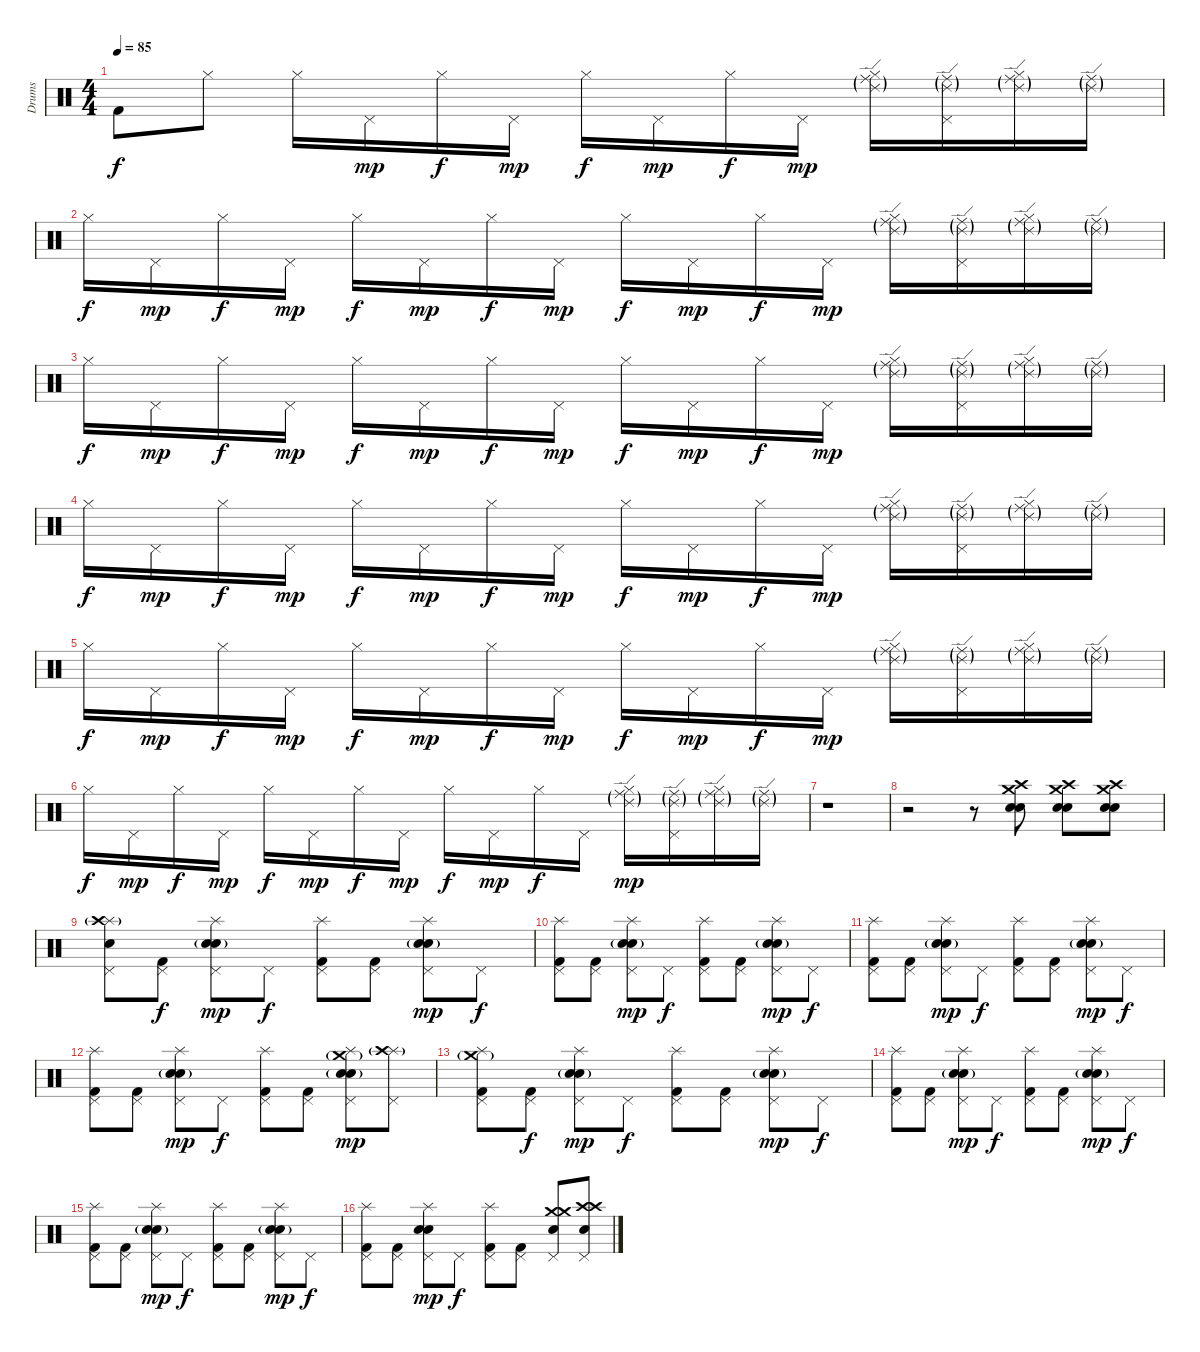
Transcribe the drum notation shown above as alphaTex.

\track ("Drums" "Drums") {instrument percussion}
\staff {score}
\articulation defaults
\ts (4 4)
\tempo 85
\clef neutral
\ks c "Kick (hit) 2".8{dy f} "Hi-Hat (closed)".8 "Hi-Hat (closed)".16 "Pedal Hi-Hat (hit)".16{dy mp} "Hi-Hat (closed)".16{dy f} "Pedal Hi-Hat (hit)".16{dy mp} "Hi-Hat (closed)".16{dy f} "Pedal Hi-Hat (hit)".16{dy mp} "Hi-Hat (closed)".16{dy f} "Pedal Hi-Hat (hit)".16{dy mp}
("Hi-Hat (closed)" "Ride (edge) 2"{g} "Ride (middle)"{g}).16 ("Pedal Hi-Hat (hit)" "Ride (edge) 2"{g} "Ride (middle)"{g}).16 ("Hi-Hat (closed)" "Ride (edge) 2"{g} "Ride (middle)"{g}).16 ("Ride (edge) 2"{g} "Ride (middle)"{g}).16 |
"Hi-Hat (closed)".16{dy f} "Pedal Hi-Hat (hit)".16{dy mp} "Hi-Hat (closed)".16{dy f} "Pedal Hi-Hat (hit)".16{dy mp} "Hi-Hat (closed)".16{dy f} "Pedal Hi-Hat (hit)".16{dy mp} "Hi-Hat (closed)".16{dy f} "Pedal Hi-Hat (hit)".16{dy mp} "Hi-Hat (closed)".16{dy f} "Pedal Hi-Hat (hit)".16{dy mp} "Hi-Hat (closed)".16{dy f} "Pedal Hi-Hat (hit)".16{dy mp} ("Hi-Hat (closed)" "Ride (edge) 2"{g} "Ride (middle)"{g}).16 ("Pedal Hi-Hat (hit)" "Ride (edge) 2"{g} "Ride (middle)"{g}).16 ("Hi-Hat (closed)" "Ride (edge) 2"{g} "Ride (middle)"{g}).16 ("Ride (edge) 2"{g} "Ride (middle)"{g}).16 |
"Hi-Hat (closed)".16{dy f} "Pedal Hi-Hat (hit)".16{dy mp} "Hi-Hat (closed)".16{dy f} "Pedal Hi-Hat (hit)".16{dy mp} "Hi-Hat (closed)".16{dy f} "Pedal Hi-Hat (hit)".16{dy mp} "Hi-Hat (closed)".16{dy f} "Pedal Hi-Hat (hit)".16{dy mp} "Hi-Hat (closed)".16{dy f} "Pedal Hi-Hat (hit)".16{dy mp} "Hi-Hat (closed)".16{dy f} "Pedal Hi-Hat (hit)".16{dy mp} ("Hi-Hat (closed)" "Ride (edge) 2"{g} "Ride (middle)"{g}).16 ("Pedal Hi-Hat (hit)" "Ride (edge) 2"{g} "Ride (middle)"{g}).16 ("Hi-Hat (closed)" "Ride (edge) 2"{g} "Ride (middle)"{g}).16 ("Ride (edge) 2"{g} "Ride (middle)"{g}).16 |
"Hi-Hat (closed)".16{dy f} "Pedal Hi-Hat (hit)".16{dy mp} "Hi-Hat (closed)".16{dy f} "Pedal Hi-Hat (hit)".16{dy mp} "Hi-Hat (closed)".16{dy f} "Pedal Hi-Hat (hit)".16{dy mp} "Hi-Hat (closed)".16{dy f} "Pedal Hi-Hat (hit)".16{dy mp} "Hi-Hat (closed)".16{dy f} "Pedal Hi-Hat (hit)".16{dy mp} "Hi-Hat (closed)".16{dy f} "Pedal Hi-Hat (hit)".16{dy mp} ("Hi-Hat (closed)" "Ride (edge) 2"{g} "Ride (middle)"{g}).16 ("Pedal Hi-Hat (hit)" "Ride (edge) 2"{g} "Ride (middle)"{g}).16 ("Hi-Hat (closed)" "Ride (edge) 2"{g} "Ride (middle)"{g}).16 ("Ride (edge) 2"{g} "Ride (middle)"{g}).16 |
"Hi-Hat (closed)".16{dy f} "Pedal Hi-Hat (hit)".16{dy mp} "Hi-Hat (closed)".16{dy f} "Pedal Hi-Hat (hit)".16{dy mp} "Hi-Hat (closed)".16{dy f} "Pedal Hi-Hat (hit)".16{dy mp} "Hi-Hat (closed)".16{dy f} "Pedal Hi-Hat (hit)".16{dy mp} "Hi-Hat (closed)".16{dy f} "Pedal Hi-Hat (hit)".16{dy mp} "Hi-Hat (closed)".16{dy f} "Pedal Hi-Hat (hit)".16{dy mp} ("Hi-Hat (closed)" "Ride (edge) 2"{g} "Ride (middle)"{g}).16 ("Pedal Hi-Hat (hit)" "Ride (edge) 2"{g} "Ride (middle)"{g}).16 ("Hi-Hat (closed)" "Ride (edge) 2"{g} "Ride (middle)"{g}).16 ("Ride (edge) 2"{g} "Ride (middle)"{g}).16 |
"Hi-Hat (closed)".16{dy f} "Pedal Hi-Hat (hit)".16{dy mp} "Hi-Hat (closed)".16{dy f} "Pedal Hi-Hat (hit)".16{dy mp} "Hi-Hat (closed)".16{dy f} "Pedal Hi-Hat (hit)".16{dy mp} "Hi-Hat (closed)".16{dy f} "Pedal Hi-Hat (hit)".16{dy mp} "Hi-Hat (closed)".16{dy f} "Pedal Hi-Hat (hit)".16{dy mp} "Hi-Hat (closed)".16{dy f} "Pedal Hi-Hat (hit)".16 ("Hi-Hat (closed)" "Ride (edge) 2"{g} "Ride (middle)"{g}).16{dy mp} ("Pedal Hi-Hat (hit)" "Ride (edge) 2"{g} "Ride (middle)"{g}).16 ("Hi-Hat (closed)" "Ride (edge) 2"{g} "Ride (middle)"{g}).16 ("Ride (edge) 2"{g} "Ride (middle)"{g}).16 |
r.1 |
r.2 r.8 ("Crash medium (hit)" "Crash high (hit)" "Electric Snare (hit)" "Snare (hit) 2").8 ("Crash medium (hit)" "Crash high (hit)" "Electric Snare (hit)" "Snare (hit) 2").8 ("Crash medium (hit)" "Crash high (hit)" "Electric Snare (hit)" "Snare (hit) 2").8 |
("Pedal Hi-Hat (hit)" "Electric Snare (hit)" "Splash (hit)" "Crash high (hit)"{g}).8 ("Pedal Hi-Hat (hit)" "Kick (hit) 2").8{dy f} ("Pedal Hi-Hat (hit)" "Electric Snare (hit)" "Snare (hit) 2"{g} "Splash (hit)").8{dy mp} "Pedal Hi-Hat (hit)".8{dy f} ("Pedal Hi-Hat (hit)" "Kick (hit) 2" "Splash (hit)").8 ("Pedal Hi-Hat (hit)" "Kick (hit) 2").8 ("Pedal Hi-Hat (hit)" "Electric Snare (hit)" "Snare (hit) 2"{g} "Splash (hit)").8{dy mp} "Pedal Hi-Hat (hit)".8{dy f} |
("Pedal Hi-Hat (hit)" "Kick (hit) 2" "Splash (hit)").8 ("Pedal Hi-Hat (hit)" "Kick (hit) 2").8 ("Pedal Hi-Hat (hit)" "Electric Snare (hit)" "Snare (hit) 2"{g} "Splash (hit)").8{dy mp} "Pedal Hi-Hat (hit)".8{dy f} ("Pedal Hi-Hat (hit)" "Kick (hit) 2" "Splash (hit)").8 ("Pedal Hi-Hat (hit)" "Kick (hit) 2").8 ("Pedal Hi-Hat (hit)" "Electric Snare (hit)" "Snare (hit) 2"{g} "Splash (hit)").8{dy mp} "Pedal Hi-Hat (hit)".8{dy f} |
("Pedal Hi-Hat (hit)" "Kick (hit) 2" "Splash (hit)").8 ("Pedal Hi-Hat (hit)" "Kick (hit) 2").8 ("Pedal Hi-Hat (hit)" "Electric Snare (hit)" "Snare (hit) 2"{g} "Splash (hit)").8{dy mp} "Pedal Hi-Hat (hit)".8{dy f} ("Pedal Hi-Hat (hit)" "Kick (hit) 2" "Splash (hit)").8 ("Pedal Hi-Hat (hit)" "Kick (hit) 2").8 ("Pedal Hi-Hat (hit)" "Electric Snare (hit)" "Snare (hit) 2"{g} "Splash (hit)").8{dy mp} "Pedal Hi-Hat (hit)".8{dy f} |
("Pedal Hi-Hat (hit)" "Kick (hit) 2" "Splash (hit)").8 ("Pedal Hi-Hat (hit)" "Kick (hit) 2").8 ("Pedal Hi-Hat (hit)" "Electric Snare (hit)" "Snare (hit) 2"{g} "Splash (hit)").8{dy mp} "Pedal Hi-Hat (hit)".8{dy f} ("Pedal Hi-Hat (hit)" "Kick (hit) 2" "Splash (hit)").8 ("Pedal Hi-Hat (hit)" "Kick (hit) 2").8 ("Pedal Hi-Hat (hit)" "Electric Snare (hit)" "Snare (hit) 2"{g} "Splash (hit)" "Crash medium (hit)"{g}).8{dy mp} ("Pedal Hi-Hat (hit)" "Splash (hit)" "Crash high (hit)"{g}).8 |
("Pedal Hi-Hat (hit)" "Kick (hit) 2" "Splash (hit)" "Crash medium (hit)"{g}).8 ("Pedal Hi-Hat (hit)" "Kick (hit) 2").8{dy f} ("Pedal Hi-Hat (hit)" "Electric Snare (hit)" "Snare (hit) 2"{g} "Splash (hit)").8{dy mp} "Pedal Hi-Hat (hit)".8{dy f} ("Pedal Hi-Hat (hit)" "Kick (hit) 2" "Splash (hit)").8 ("Pedal Hi-Hat (hit)" "Kick (hit) 2").8 ("Pedal Hi-Hat (hit)" "Electric Snare (hit)" "Snare (hit) 2"{g} "Splash (hit)").8{dy mp} "Pedal Hi-Hat (hit)".8{dy f} |
("Pedal Hi-Hat (hit)" "Kick (hit) 2" "Splash (hit)").8 ("Pedal Hi-Hat (hit)" "Kick (hit) 2").8 ("Pedal Hi-Hat (hit)" "Electric Snare (hit)" "Snare (hit) 2"{g} "Splash (hit)").8{dy mp} "Pedal Hi-Hat (hit)".8{dy f} ("Pedal Hi-Hat (hit)" "Kick (hit) 2" "Splash (hit)").8 ("Pedal Hi-Hat (hit)" "Kick (hit) 2").8 ("Pedal Hi-Hat (hit)" "Electric Snare (hit)" "Snare (hit) 2"{g} "Splash (hit)").8{dy mp} "Pedal Hi-Hat (hit)".8{dy f} |
("Pedal Hi-Hat (hit)" "Kick (hit) 2" "Splash (hit)").8 ("Pedal Hi-Hat (hit)" "Kick (hit) 2").8 ("Pedal Hi-Hat (hit)" "Electric Snare (hit)" "Snare (hit) 2"{g} "Splash (hit)").8{dy mp} "Pedal Hi-Hat (hit)".8{dy f} ("Pedal Hi-Hat (hit)" "Kick (hit) 2" "Splash (hit)").8 ("Pedal Hi-Hat (hit)" "Kick (hit) 2").8 ("Pedal Hi-Hat (hit)" "Electric Snare (hit)" "Snare (hit) 2"{g} "Splash (hit)").8{dy mp} "Pedal Hi-Hat (hit)".8{dy f} |
("Pedal Hi-Hat (hit)" "Kick (hit) 2" "Splash (hit)").8 ("Pedal Hi-Hat (hit)" "Kick (hit) 2").8 ("Pedal Hi-Hat (hit)" "Electric Snare (hit)" "Snare (hit) 2" "Splash (hit)").8{dy mp} "Pedal Hi-Hat (hit)".8{dy f} ("Pedal Hi-Hat (hit)" "Kick (hit) 2" "Splash (hit)").8 ("Pedal Hi-Hat (hit)" "Kick (hit) 2").8 ("Pedal Hi-Hat (hit)" "Electric Snare (hit)" "Crash medium (hit)" "Crash medium (hit)").8 ("Pedal Hi-Hat (hit)" "Electric Snare (hit)" "Crash high (hit)" "Crash high (hit)").8
